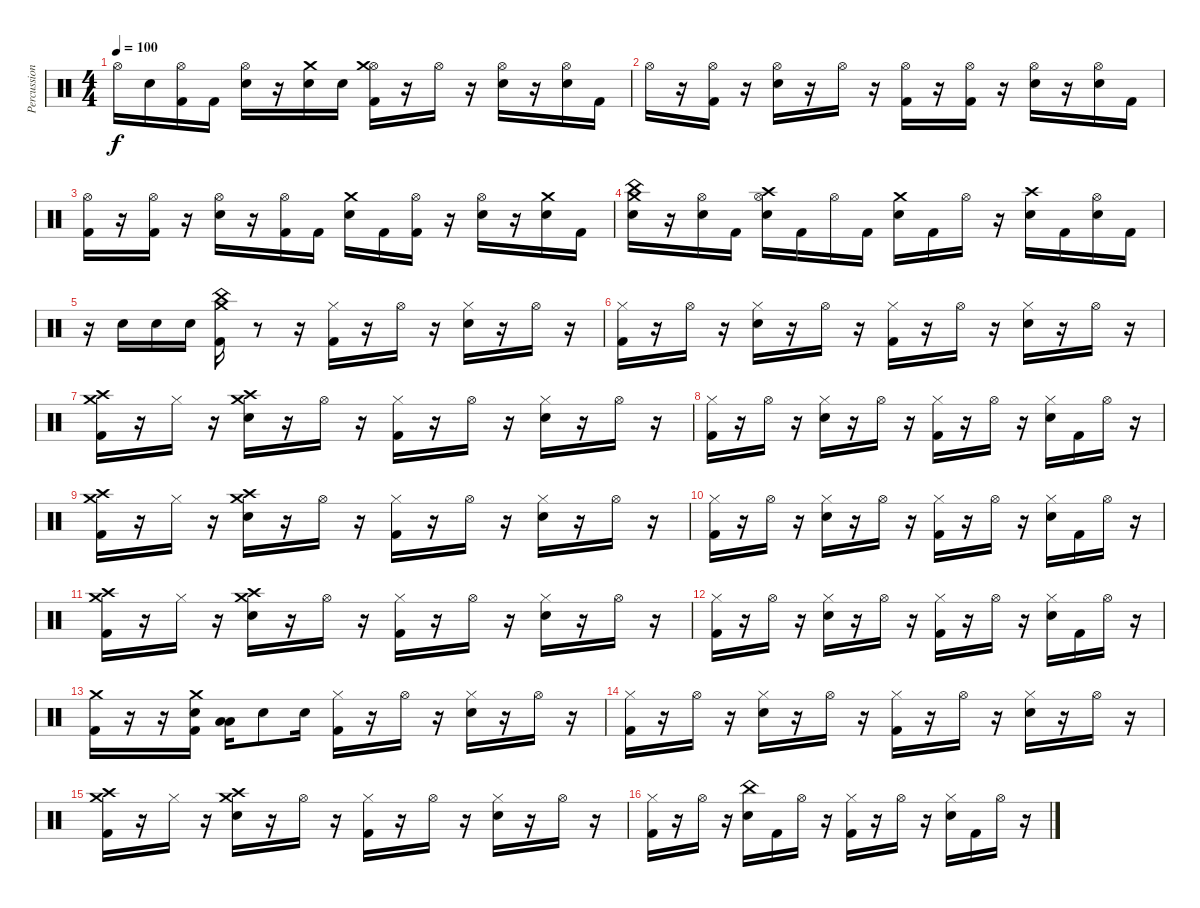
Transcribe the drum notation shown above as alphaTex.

\track ("Percussion" "Percussion") {instrument percussion}
\staff {score}
\articulation defaults
\ts (4 4)
\tempo 100
\clef neutral
\ks c "Hi-Hat (open)".16{dy f} "Snare (hit) 2".16
("Hi-Hat (open)" "Kick (hit) 2").16 "Kick (hit) 2".16 ("Hi-Hat (open)" "Snare (hit) 2").16 r.16 ("Crash medium (hit)" "Snare (hit) 2").16 "Snare (hit) 2".16 ("Hi-Hat (open)" "Crash medium (hit)" "Kick (hit) 2").16 r.16 "Hi-Hat (open)".16 r.16 ("Hi-Hat (open)" "Snare (hit) 2").16 r.16 ("Hi-Hat (open)" "Snare (hit) 2").16 "Kick (hit) 2".16 |
"Hi-Hat (open)".16 r.16 ("Hi-Hat (open)" "Kick (hit) 2").16 r.16 ("Hi-Hat (open)" "Snare (hit) 2").16 r.16 "Hi-Hat (open)".16 r.16 ("Hi-Hat (open)" "Kick (hit) 2").16 r.16 ("Hi-Hat (open)" "Kick (hit) 2").16 r.16 ("Hi-Hat (open)" "Snare (hit) 2").16 r.16 ("Hi-Hat (open)" "Snare (hit) 2").16 "Kick (hit) 2".16 |
("Hi-Hat (open)" "Kick (hit) 2").16 r.16 ("Hi-Hat (open)" "Kick (hit) 2").16 r.16 ("Hi-Hat (open)" "Snare (hit) 2").16 r.16 ("Hi-Hat (open)" "Kick (hit) 2").16 "Kick (hit) 2".16 ("Crash medium (hit)" "Snare (hit) 2").16 "Kick (hit) 2".16 ("Hi-Hat (open)" "Kick (hit) 2").16 r.16 ("Hi-Hat (open)" "Snare (hit) 2").16 r.16 ("Crash medium (hit)" "Snare (hit) 2").16 "Kick (hit) 2".16 |
("China (hit)" "Crash medium (hit)" "Snare (hit) 2").16 r.16 ("Hi-Hat (open)" "Snare (hit) 2").16 "Kick (hit) 2".16 ("Hi-Hat (open)" "Crash high (hit)" "Snare (hit) 2").16 "Kick (hit) 2".16 "Hi-Hat (open)".16 "Kick (hit) 2".16 ("Crash medium (hit)" "Snare (hit) 2").16 "Kick (hit) 2".16 "Hi-Hat (open)".16 r.16 ("Crash high (hit)" "Snare (hit) 2").16 "Kick (hit) 2".16 ("Hi-Hat (open)" "Snare (hit) 2").16 "Kick (hit) 2".16 |
r.16 "Snare (hit) 2".16 "Snare (hit) 2".16 "Snare (hit) 2".16 ("Crash medium (hit)" "China (hit)" "Kick (hit) 2").16 r.8 r.16 ("Hi-Hat (closed)" "Kick (hit) 2").16 r.16 "Hi-Hat (open)".16 r.16 ("Hi-Hat (closed)" "Snare (hit) 2").16 r.16 "Hi-Hat (open)".16 r.16 |
("Hi-Hat (closed)" "Kick (hit) 2").16 r.16 "Hi-Hat (open)".16 r.16 ("Hi-Hat (closed)" "Snare (hit) 2").16 r.16 "Hi-Hat (open)".16 r.16 ("Hi-Hat (closed)" "Kick (hit) 2").16 r.16 "Hi-Hat (open)".16 r.16 ("Hi-Hat (closed)" "Snare (hit) 2").16 r.16 "Hi-Hat (open)".16 r.16 |
("Crash medium (hit)" "Crash high (hit)" "Kick (hit) 2").16 r.16 "Hi-Hat (closed)".16 r.16 ("Crash medium (hit)" "Crash high (hit)" "Snare (hit) 2").16 r.16 "Hi-Hat (open)".16 r.16 ("Hi-Hat (closed)" "Kick (hit) 2").16 r.16 "Hi-Hat (open)".16 r.16 ("Hi-Hat (closed)" "Snare (hit) 2").16 r.16 "Hi-Hat (open)".16 r.16 |
("Hi-Hat (closed)" "Kick (hit) 2").16 r.16 "Hi-Hat (open)".16 r.16 ("Hi-Hat (closed)" "Snare (hit) 2").16 r.16 "Hi-Hat (open)".16 r.16 ("Hi-Hat (closed)" "Kick (hit) 2").16 r.16 "Hi-Hat (open)".16 r.16 ("Hi-Hat (closed)" "Snare (hit) 2").16 "Kick (hit) 2".16 "Hi-Hat (open)".16 r.16 |
("Crash medium (hit)" "Crash high (hit)" "Kick (hit) 2").16 r.16 "Hi-Hat (closed)".16 r.16 ("Crash medium (hit)" "Crash high (hit)" "Snare (hit) 2").16 r.16 "Hi-Hat (open)".16 r.16 ("Hi-Hat (closed)" "Kick (hit) 2").16 r.16 "Hi-Hat (open)".16 r.16 ("Hi-Hat (closed)" "Snare (hit) 2").16 r.16 "Hi-Hat (open)".16 r.16 |
("Hi-Hat (closed)" "Kick (hit) 2").16 r.16 "Hi-Hat (open)".16 r.16 ("Hi-Hat (closed)" "Snare (hit) 2").16 r.16 "Hi-Hat (open)".16 r.16 ("Hi-Hat (closed)" "Kick (hit) 2").16 r.16 "Hi-Hat (open)".16 r.16 ("Hi-Hat (closed)" "Snare (hit) 2").16 "Kick (hit) 2".16 "Hi-Hat (open)".16 r.16 |
("Crash medium (hit)" "Crash high (hit)" "Kick (hit) 2").16 r.16 "Hi-Hat (closed)".16 r.16 ("Crash medium (hit)" "Crash high (hit)" "Snare (hit) 2").16 r.16 "Hi-Hat (open)".16 r.16 ("Hi-Hat (closed)" "Kick (hit) 2").16 r.16 "Hi-Hat (open)".16 r.16 ("Hi-Hat (closed)" "Snare (hit) 2").16 r.16 "Hi-Hat (open)".16 r.16 |
("Hi-Hat (closed)" "Kick (hit) 2").16 r.16 "Hi-Hat (open)".16 r.16 ("Hi-Hat (closed)" "Snare (hit) 2").16 r.16 "Hi-Hat (open)".16 r.16 ("Hi-Hat (closed)" "Kick (hit) 2").16 r.16 "Hi-Hat (open)".16 r.16 ("Hi-Hat (closed)" "Snare (hit) 2").16 "Kick (hit) 2".16 "Hi-Hat (open)".16 r.16 |
("Crash medium (hit)" "Kick (hit) 2").16 r.16 r.16 ("Crash medium (hit)" "Snare (hit) 2" "Kick (hit) 2").16 ("Low Tom (hit)" "Low Tom (hit)").16 "Snare (hit) 2".8 "Snare (hit) 2".16 ("Hi-Hat (closed)" "Kick (hit) 2").16 r.16 "Hi-Hat (open)".16 r.16 ("Hi-Hat (closed)" "Snare (hit) 2").16 r.16 "Hi-Hat (open)".16 r.16 |
("Hi-Hat (closed)" "Kick (hit) 2").16 r.16 "Hi-Hat (open)".16 r.16 ("Hi-Hat (closed)" "Snare (hit) 2").16 r.16 "Hi-Hat (open)".16 r.16 ("Hi-Hat (closed)" "Kick (hit) 2").16 r.16 "Hi-Hat (open)".16 r.16 ("Hi-Hat (closed)" "Snare (hit) 2").16 r.16 "Hi-Hat (open)".16 r.16 |
("Crash medium (hit)" "Crash high (hit)" "Kick (hit) 2").16 r.16 "Hi-Hat (closed)".16 r.16 ("Crash medium (hit)" "Crash high (hit)" "Snare (hit) 2").16 r.16 "Hi-Hat (open)".16 r.16 ("Hi-Hat (closed)" "Kick (hit) 2").16 r.16 "Hi-Hat (open)".16 r.16 ("Hi-Hat (closed)" "Snare (hit) 2").16 r.16 "Hi-Hat (open)".16 r.16 |
("Hi-Hat (closed)" "Kick (hit) 2").16 r.16 "Hi-Hat (open)".16 r.16 ("China (hit)" "Snare (hit) 2").16 "Kick (hit) 2".16 "Hi-Hat (open)".16 r.16 ("Hi-Hat (closed)" "Kick (hit) 2").16 r.16 "Hi-Hat (open)".16 r.16 ("Hi-Hat (closed)" "Snare (hit) 2").16 "Kick (hit) 2".16 "Hi-Hat (open)".16 r.16
